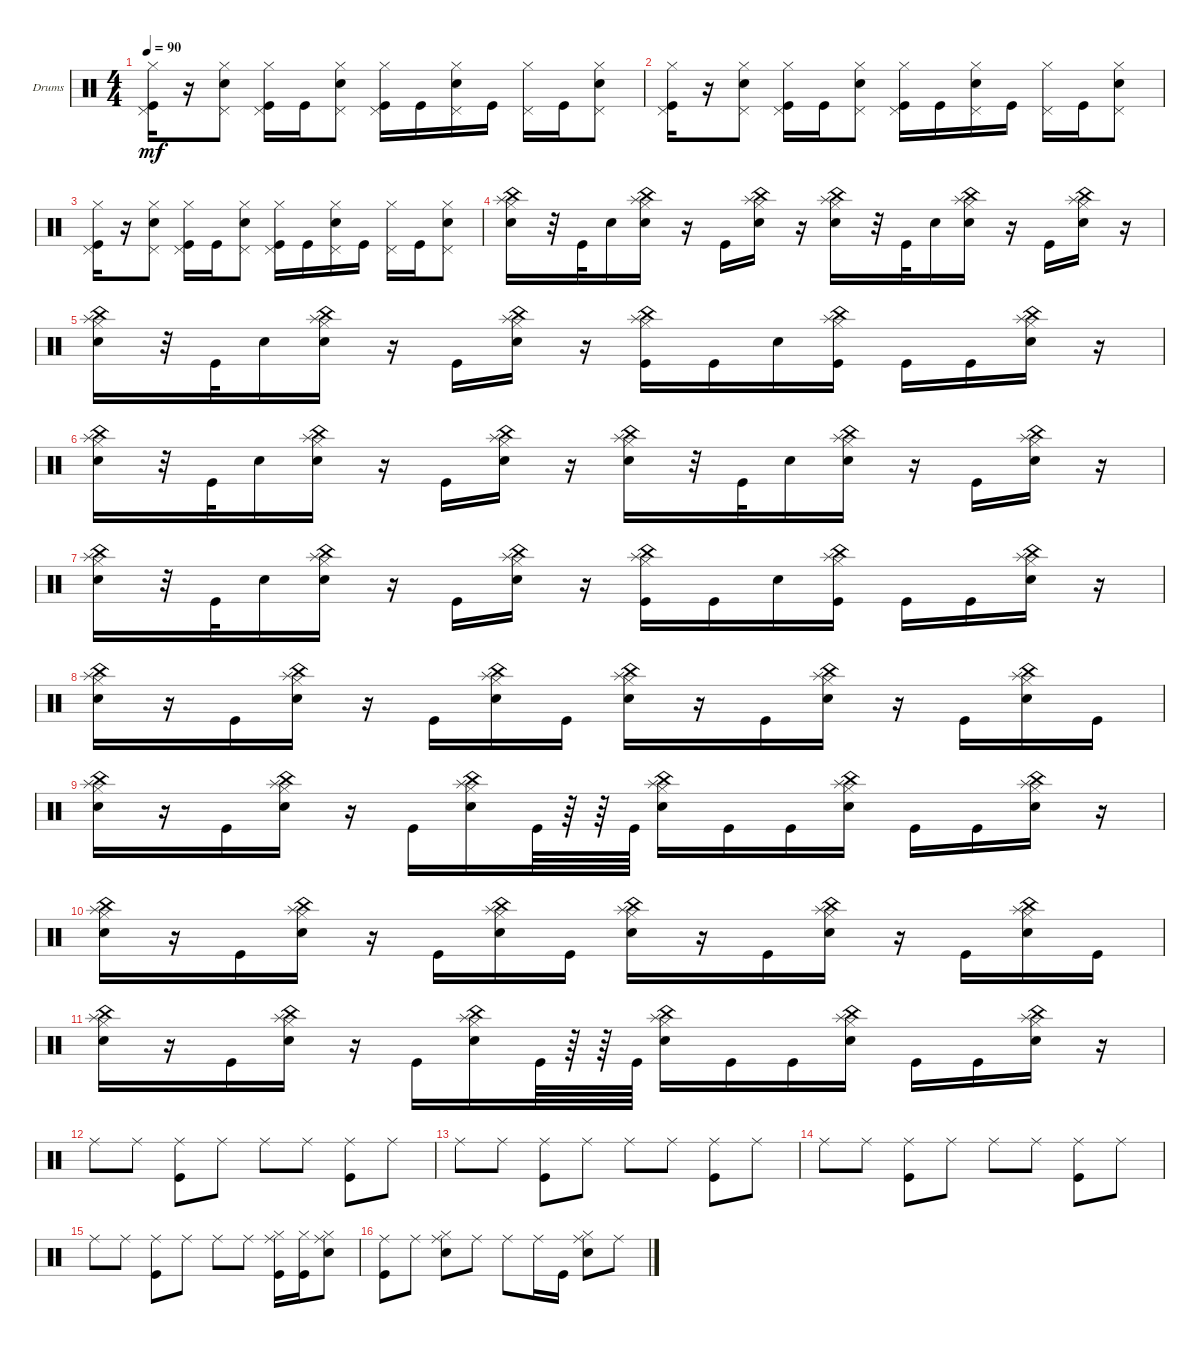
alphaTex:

\defaultSystemsLayout 4
\bracketExtendMode groupsimilarinstruments
\firstSystemTrackNameOrientation horizontal
\otherSystemsTrackNameOrientation horizontal
\track ("Drumkit" "Drums") {instrument percussion}
\staff {score}
\articulation defaults
\ts (4 4)
\tempo 90
\clef neutral
\ks c
("Hi-Hat (closed)" "Kick (hit)" "Pedal Hi-Hat (hit)").16{dy mf} r.16 ("Hi-Hat (closed)" "Snare (hit) 2" "Pedal Hi-Hat (hit)").8 ("Hi-Hat (closed)" "Kick (hit)" "Pedal Hi-Hat (hit)").16 "Kick (hit)".16 ("Hi-Hat (closed)" "Snare (hit) 2" "Pedal Hi-Hat (hit)").8 ("Hi-Hat (closed)" "Kick (hit)" "Pedal Hi-Hat (hit)").16 "Kick (hit)".16 ("Hi-Hat (closed)" "Snare (hit) 2" "Pedal Hi-Hat (hit)").16 "Kick (hit)".16 ("Hi-Hat (closed)" "Pedal Hi-Hat (hit)").16 "Kick (hit)".16 ("Hi-Hat (closed)" "Snare (hit) 2" "Pedal Hi-Hat (hit)").8 |
("Hi-Hat (closed)" "Kick (hit)" "Pedal Hi-Hat (hit)").16 r.16 ("Hi-Hat (closed)" "Snare (hit) 2" "Pedal Hi-Hat (hit)").8 ("Hi-Hat (closed)" "Kick (hit)" "Pedal Hi-Hat (hit)").16 "Kick (hit)".16 ("Hi-Hat (closed)" "Snare (hit) 2" "Pedal Hi-Hat (hit)").8 ("Hi-Hat (closed)" "Kick (hit)" "Pedal Hi-Hat (hit)").16 "Kick (hit)".16 ("Hi-Hat (closed)" "Snare (hit) 2" "Pedal Hi-Hat (hit)").16 "Kick (hit)".16 ("Hi-Hat (closed)" "Pedal Hi-Hat (hit)").16 "Kick (hit)".16 ("Hi-Hat (closed)" "Snare (hit) 2" "Pedal Hi-Hat (hit)").8 |
("Hi-Hat (closed)" "Kick (hit)" "Pedal Hi-Hat (hit)").16 r.16 ("Hi-Hat (closed)" "Snare (hit) 2" "Pedal Hi-Hat (hit)").8 ("Hi-Hat (closed)" "Kick (hit)" "Pedal Hi-Hat (hit)").16 "Kick (hit)".16 ("Hi-Hat (closed)" "Snare (hit) 2" "Pedal Hi-Hat (hit)").8 ("Hi-Hat (closed)" "Kick (hit)" "Pedal Hi-Hat (hit)").16 "Kick (hit)".16 ("Hi-Hat (closed)" "Snare (hit) 2" "Pedal Hi-Hat (hit)").16 "Kick (hit)".16 ("Hi-Hat (closed)" "Pedal Hi-Hat (hit)").16 "Kick (hit)".16 ("Hi-Hat (closed)" "Snare (hit) 2" "Pedal Hi-Hat (hit)").8 |
("Hi-Hat (closed)" "Splash (hit)" "Snare (hit) 2" "China (hit)").16 r.32 "Kick (hit)".32 "Snare (hit) 2".16 ("Snare (hit) 2" "Hi-Hat (closed)" "Splash (hit)" "China (hit)").16 r.16 "Kick (hit)".16 ("Snare (hit) 2" "Splash (hit)" "Hi-Hat (closed)" "China (hit)").16 r.16 ("Snare (hit) 2" "Splash (hit)" "Hi-Hat (closed)" "China (hit)").16 r.32 "Kick (hit)".32 "Snare (hit) 2".16 ("Snare (hit) 2" "Hi-Hat (closed)" "Splash (hit)" "China (hit)").16 r.16 "Kick (hit)".16 ("Snare (hit) 2" "Hi-Hat (closed)" "Splash (hit)" "China (hit)").16 r.16 |
("Hi-Hat (closed)" "Splash (hit)" "Snare (hit) 2" "China (hit)").16 r.32 "Kick (hit)".32 "Snare (hit) 2".16 ("Snare (hit) 2" "Hi-Hat (closed)" "Splash (hit)" "China (hit)").16 r.16 "Kick (hit)".16 ("Snare (hit) 2" "Splash (hit)" "Hi-Hat (closed)" "China (hit)").16 r.16 ("Splash (hit)" "Hi-Hat (closed)" "Kick (hit)" "China (hit)").16 "Kick (hit)".16 "Snare (hit) 2".16 ("Hi-Hat (closed)" "Splash (hit)" "Kick (hit)" "China (hit)").16 "Kick (hit)".16 "Kick (hit)".16 ("Snare (hit) 2" "Hi-Hat (closed)" "Splash (hit)" "China (hit)").16 r.16 |
("Hi-Hat (closed)" "Splash (hit)" "Snare (hit) 2" "China (hit)").16 r.32 "Kick (hit)".32 "Snare (hit) 2".16 ("Snare (hit) 2" "Hi-Hat (closed)" "Splash (hit)" "China (hit)").16 r.16 "Kick (hit)".16 ("Snare (hit) 2" "Splash (hit)" "Hi-Hat (closed)" "China (hit)").16 r.16 ("Snare (hit) 2" "Splash (hit)" "Hi-Hat (closed)" "China (hit)").16 r.32 "Kick (hit)".32 "Snare (hit) 2".16 ("Snare (hit) 2" "Hi-Hat (closed)" "Splash (hit)" "China (hit)").16 r.16 "Kick (hit)".16 ("Snare (hit) 2" "Hi-Hat (closed)" "Splash (hit)" "China (hit)").16 r.16 |
("Hi-Hat (closed)" "Splash (hit)" "Snare (hit) 2" "China (hit)").16 r.32 "Kick (hit)".32 "Snare (hit) 2".16 ("Snare (hit) 2" "Hi-Hat (closed)" "Splash (hit)" "China (hit)").16 r.16 "Kick (hit)".16 ("Snare (hit) 2" "Splash (hit)" "Hi-Hat (closed)" "China (hit)").16 r.16 ("Splash (hit)" "Hi-Hat (closed)" "Kick (hit)" "China (hit)").16 "Kick (hit)".16 "Snare (hit) 2".16 ("Hi-Hat (closed)" "Splash (hit)" "Kick (hit)" "China (hit)").16 "Kick (hit)".16 "Kick (hit)".16 ("Snare (hit) 2" "Hi-Hat (closed)" "Splash (hit)" "China (hit)").16 r.16 |
("Hi-Hat (closed)" "Splash (hit)" "Snare (hit) 2" "China (hit)").16 r.16 "Kick (hit)".16 ("Snare (hit) 2" "Hi-Hat (closed)" "Splash (hit)" "China (hit)").16 r.16 "Kick (hit)".16 ("Snare (hit) 2" "Hi-Hat (closed)" "Splash (hit)" "China (hit)").16 "Kick (hit)".16 ("Hi-Hat (closed)" "Splash (hit)" "Snare (hit) 2" "China (hit)").16 r.16 "Kick (hit)".16 ("Snare (hit) 2" "Hi-Hat (closed)" "Splash (hit)" "China (hit)").16 r.16 "Kick (hit)".16 ("Snare (hit) 2" "Hi-Hat (closed)" "Splash (hit)" "China (hit)").16 "Kick (hit)".16 |
("Hi-Hat (closed)" "Splash (hit)" "Snare (hit) 2" "China (hit)").16 r.16 "Kick (hit)".16 ("Snare (hit) 2" "Hi-Hat (closed)" "Splash (hit)" "China (hit)").16 r.16 "Kick (hit)".16 ("Snare (hit) 2" "Hi-Hat (closed)" "Splash (hit)" "China (hit)").16 "Kick (hit)".64 r.64 r.64 "Kick (hit)".64 ("Hi-Hat (closed)" "Splash (hit)" "Snare (hit) 2" "China (hit)").16 "Kick (hit)".16 "Kick (hit)".16 ("Hi-Hat (closed)" "Splash (hit)" "Snare (hit) 2" "China (hit)").16 "Kick (hit)".16 "Kick (hit)".16 ("Hi-Hat (closed)" "Splash (hit)" "Snare (hit) 2" "China (hit)").16 r.16 |
("Hi-Hat (closed)" "Splash (hit)" "Snare (hit) 2" "China (hit)").16 r.16 "Kick (hit)".16 ("Snare (hit) 2" "Hi-Hat (closed)" "Splash (hit)" "China (hit)").16 r.16 "Kick (hit)".16 ("Snare (hit) 2" "Hi-Hat (closed)" "Splash (hit)" "China (hit)").16 "Kick (hit)".16 ("Hi-Hat (closed)" "Splash (hit)" "Snare (hit) 2" "China (hit)").16 r.16 "Kick (hit)".16 ("Snare (hit) 2" "Hi-Hat (closed)" "Splash (hit)" "China (hit)").16 r.16 "Kick (hit)".16 ("Snare (hit) 2" "Hi-Hat (closed)" "Splash (hit)" "China (hit)").16 "Kick (hit)".16 |
("Hi-Hat (closed)" "Splash (hit)" "Snare (hit) 2" "China (hit)").16 r.16 "Kick (hit)".16 ("Snare (hit) 2" "Hi-Hat (closed)" "Splash (hit)" "China (hit)").16 r.16 "Kick (hit)".16 ("Snare (hit) 2" "Hi-Hat (closed)" "Splash (hit)" "China (hit)").16 "Kick (hit)".64 r.64 r.64 "Kick (hit)".64 ("Hi-Hat (closed)" "Splash (hit)" "Snare (hit) 2" "China (hit)").16 "Kick (hit)".16 "Kick (hit)".16 ("Hi-Hat (closed)" "Splash (hit)" "Snare (hit) 2" "China (hit)").16 "Kick (hit)".16 "Kick (hit)".16 ("Hi-Hat (closed)" "Splash (hit)" "Snare (hit) 2" "China (hit)").16 r.16 |
"Ride (middle)".8 "Ride (middle)".8 ("Ride (middle)" "Kick (hit)").8 "Ride (middle)".8 "Ride (middle)".8 "Ride (middle)".8 ("Ride (middle)" "Kick (hit)").8 "Ride (middle)".8 |
"Ride (middle)".8 "Ride (middle)".8 ("Ride (middle)" "Kick (hit)").8 "Ride (middle)".8 "Ride (middle)".8 "Ride (middle)".8 ("Ride (middle)" "Kick (hit)").8 "Ride (middle)".8 |
"Ride (middle)".8 "Ride (middle)".8 ("Ride (middle)" "Kick (hit)").8 "Ride (middle)".8 "Ride (middle)".8 "Ride (middle)".8 ("Ride (middle)" "Kick (hit)").8 "Ride (middle)".8 |
"Ride (middle)".8 "Ride (middle)".8 ("Ride (middle)" "Kick (hit)").8 "Ride (middle)".8 "Ride (middle)".8 "Ride (middle)".8 ("Ride (middle)" "Kick (hit)" "Hi-Hat (closed)").16 ("Kick (hit)" "Hi-Hat (closed)").16 ("Ride (middle)" "Snare (hit) 2" "Hi-Hat (closed)").8 |
("Ride (middle)" "Kick (hit)").8 "Ride (middle)".8 ("Ride (middle)" "Snare (hit) 2" "Hi-Hat (closed)").8 "Ride (middle)".8 "Ride (middle)".8 "Ride (middle)".16 "Kick (hit)".16 ("Ride (middle)" "Snare (hit) 2" "Hi-Hat (closed)").8 "Ride (middle)".8
